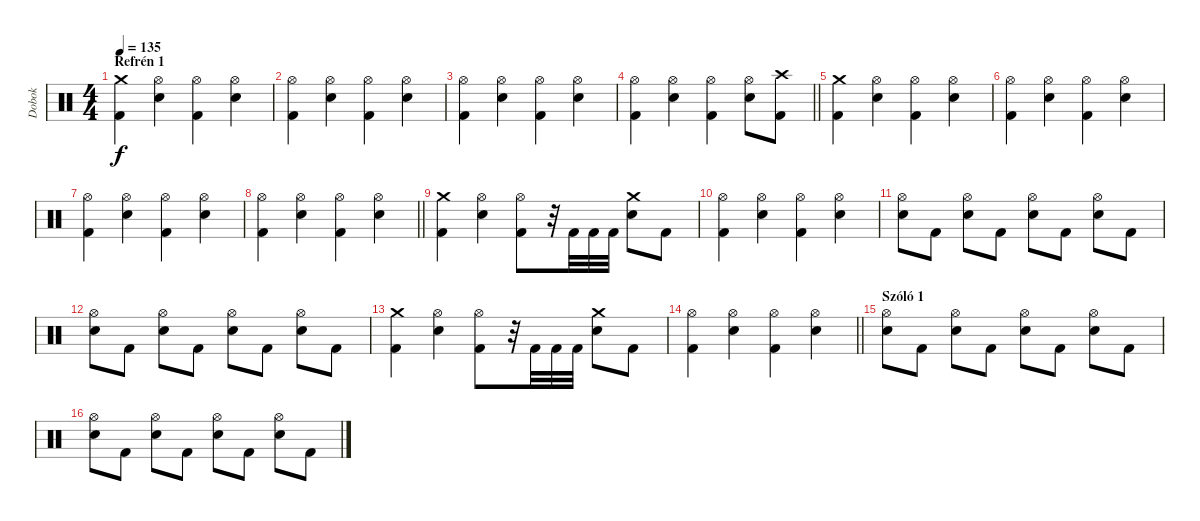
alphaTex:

\track ("Dobok" "Dobok") {instrument percussion}
\staff {score}
\articulation defaults
\ts (4 4)
\section ("" "Refrén 1")
\tempo 135
\clef neutral
\ks c
("Crash medium (hit)" "Kick (hit) 2").4{dy f} ("Hi-Hat (open)" "Electric Snare (hit)").4 ("Hi-Hat (open)" "Kick (hit) 2").4 ("Hi-Hat (open)" "Electric Snare (hit)").4 |
("Hi-Hat (open)" "Kick (hit) 2").4 ("Hi-Hat (open)" "Electric Snare (hit)").4 ("Hi-Hat (open)" "Kick (hit) 2").4 ("Hi-Hat (open)" "Electric Snare (hit)").4 |
("Hi-Hat (open)" "Kick (hit) 2").4 ("Hi-Hat (open)" "Electric Snare (hit)").4 ("Hi-Hat (open)" "Kick (hit) 2").4 ("Hi-Hat (open)" "Electric Snare (hit)").4 |
\barLineRight lightlight
("Hi-Hat (open)" "Kick (hit) 2").4 ("Hi-Hat (open)" "Electric Snare (hit)").4 ("Hi-Hat (open)" "Kick (hit) 2").4 ("Hi-Hat (open)" "Electric Snare (hit)").8 ("Crash high (hit)" "Kick (hit) 2").8 |
("Crash medium (hit)" "Kick (hit) 2").4 ("Hi-Hat (open)" "Electric Snare (hit)").4 ("Hi-Hat (open)" "Kick (hit) 2").4 ("Hi-Hat (open)" "Electric Snare (hit)").4 |
("Hi-Hat (open)" "Kick (hit) 2").4 ("Hi-Hat (open)" "Electric Snare (hit)").4 ("Hi-Hat (open)" "Kick (hit) 2").4 ("Hi-Hat (open)" "Electric Snare (hit)").4 |
("Hi-Hat (open)" "Kick (hit) 2").4 ("Hi-Hat (open)" "Electric Snare (hit)").4 ("Hi-Hat (open)" "Kick (hit) 2").4 ("Hi-Hat (open)" "Electric Snare (hit)").4 |
\barLineRight lightlight
("Hi-Hat (open)" "Kick (hit) 2").4 ("Hi-Hat (open)" "Electric Snare (hit)").4 ("Hi-Hat (open)" "Kick (hit) 2").4 ("Hi-Hat (open)" "Electric Snare (hit)").4 |
("Crash medium (hit)" "Kick (hit) 2").4 ("Hi-Hat (open)" "Electric Snare (hit)").4 ("Hi-Hat (open)" "Kick (hit) 2").8 r.32 "Kick (hit) 2".32 "Kick (hit) 2".32 "Kick (hit) 2".32 ("Crash medium (hit)" "Electric Snare (hit)").8 "Kick (hit) 2".8 |
("Hi-Hat (open)" "Kick (hit) 2").4 ("Hi-Hat (open)" "Electric Snare (hit)").4 ("Hi-Hat (open)" "Kick (hit) 2").4 ("Hi-Hat (open)" "Electric Snare (hit)").4 |
("Hi-Hat (open)" "Electric Snare (hit)").8 "Kick (hit) 2".8 ("Hi-Hat (open)" "Electric Snare (hit)").8 "Kick (hit) 2".8 ("Hi-Hat (open)" "Electric Snare (hit)").8 "Kick (hit) 2".8 ("Hi-Hat (open)" "Electric Snare (hit)").8 "Kick (hit) 2".8 |
("Hi-Hat (open)" "Electric Snare (hit)").8 "Kick (hit) 2".8 ("Hi-Hat (open)" "Electric Snare (hit)").8 "Kick (hit) 2".8 ("Hi-Hat (open)" "Electric Snare (hit)").8 "Kick (hit) 2".8 ("Hi-Hat (open)" "Electric Snare (hit)").8 "Kick (hit) 2".8 |
("Crash medium (hit)" "Kick (hit) 2").4 ("Hi-Hat (open)" "Electric Snare (hit)").4 ("Hi-Hat (open)" "Kick (hit) 2").8 r.32 "Kick (hit) 2".32 "Kick (hit) 2".32 "Kick (hit) 2".32 ("Crash medium (hit)" "Electric Snare (hit)").8 "Kick (hit) 2".8 |
\barLineRight lightlight
("Hi-Hat (open)" "Kick (hit) 2").4 ("Hi-Hat (open)" "Electric Snare (hit)").4 ("Hi-Hat (open)" "Kick (hit) 2").4 ("Hi-Hat (open)" "Electric Snare (hit)").4 |
\section ("" "Szóló 1")
("Hi-Hat (open)" "Electric Snare (hit)").8 "Kick (hit) 2".8 ("Hi-Hat (open)" "Electric Snare (hit)").8 "Kick (hit) 2".8 ("Hi-Hat (open)" "Electric Snare (hit)").8 "Kick (hit) 2".8 ("Hi-Hat (open)" "Electric Snare (hit)").8 "Kick (hit) 2".8 |
("Hi-Hat (open)" "Electric Snare (hit)").8 "Kick (hit) 2".8 ("Hi-Hat (open)" "Electric Snare (hit)").8 "Kick (hit) 2".8 ("Hi-Hat (open)" "Electric Snare (hit)").8 "Kick (hit) 2".8 ("Hi-Hat (open)" "Electric Snare (hit)").8 "Kick (hit) 2".8
